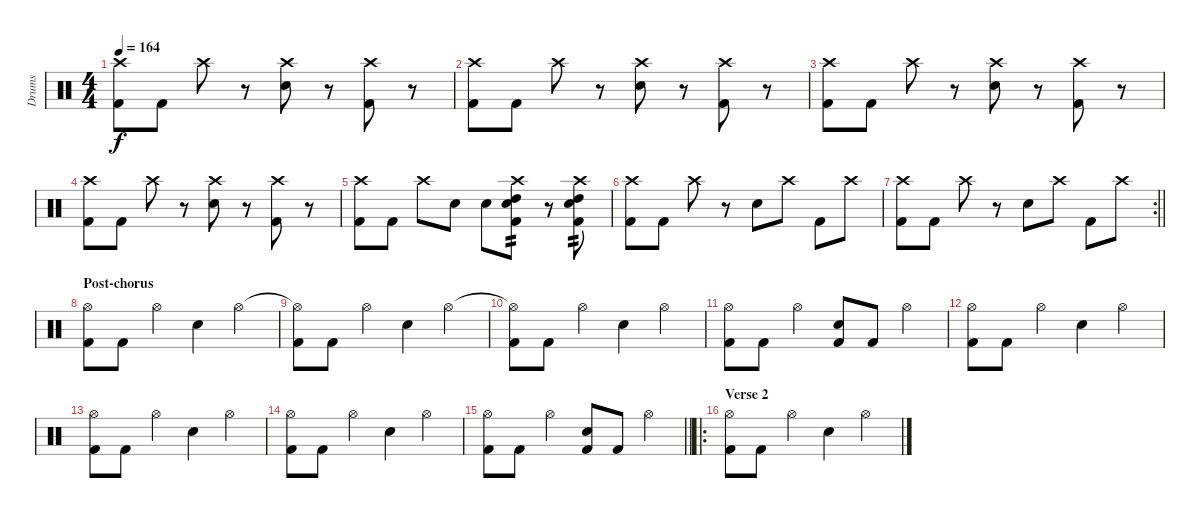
\track ("Drums" "Drums") {instrument percussion}
\staff {score}
\articulation defaults
\ts (4 4)
\tempo 164
\clef neutral
\ks c
("Crash high (hit)" "Kick (hit) 2").8{dy f} "Kick (hit) 2".8 "Crash high (hit)".8 r.8 ("Crash high (hit)" "Electric Snare (hit)").8 r.8 ("Crash high (hit)" "Kick (hit) 2").8 r.8 |
("Crash high (hit)" "Kick (hit) 2").8 "Kick (hit) 2".8 "Crash high (hit)".8 r.8 ("Crash high (hit)" "Electric Snare (hit)").8 r.8 ("Crash high (hit)" "Kick (hit) 2").8 r.8 |
("Crash high (hit)" "Kick (hit) 2").8 "Kick (hit) 2".8 "Crash high (hit)".8 r.8 ("Crash high (hit)" "Electric Snare (hit)").8 r.8 ("Crash high (hit)" "Kick (hit) 2").8 r.8 |
("Crash high (hit)" "Kick (hit) 2").8 "Kick (hit) 2".8 "Crash high (hit)".8 r.8 ("Crash high (hit)" "Electric Snare (hit)").8 r.8 ("Crash high (hit)" "Kick (hit) 2").8 r.8 |
("Crash high (hit)" "Kick (hit) 2").8 "Kick (hit) 2".8 "Crash high (hit)".8 "Electric Snare (hit)".8 "Snare (hit) 2".8 ("Crash high (hit)" "High Tom (hit)" "Snare (hit) 2" "Kick (hit) 2").8{tp 2} r.8 ("Crash high (hit)" "High Tom (hit)" "Electric Snare (hit)" "Kick (hit) 2").8{tp 2} |
("Crash high (hit)" "Kick (hit) 2").8 "Kick (hit) 2".8 "Crash high (hit)".8 r.8 "Electric Snare (hit)".8 "Crash high (hit)".8 "Kick (hit) 2".8 "Crash high (hit)".8 |
\rc 2
\barLineRight lightlight
("Crash high (hit)" "Kick (hit) 2").8 "Kick (hit) 2".8 "Crash high (hit)".8 r.8 "Electric Snare (hit)".8 "Crash high (hit)".8 "Kick (hit) 2".8 "Crash high (hit)".8 |
\section ("" "Post-chorus")
("Hi-Hat (open)" "Kick (hit) 2").8 "Kick (hit) 2".8 "Hi-Hat (open)".4 "Snare (hit) 2".4 "Hi-Hat (open)".4 |
("Hi-Hat (open)"{t} "Kick (hit) 2").8 "Kick (hit) 2".8 "Hi-Hat (open)".4 "Snare (hit) 2".4 "Hi-Hat (open)".4 |
("Hi-Hat (open)"{t} "Kick (hit) 2").8 "Kick (hit) 2".8 "Hi-Hat (open)".4 "Snare (hit) 2".4 "Hi-Hat (open)".4 |
("Hi-Hat (open)" "Kick (hit) 2").8 "Kick (hit) 2".8 "Hi-Hat (open)".4 ("Snare (hit) 2" "Kick (hit) 2").8 "Kick (hit) 2".8 "Hi-Hat (open)".4 |
("Hi-Hat (open)" "Kick (hit) 2").8 "Kick (hit) 2".8 "Hi-Hat (open)".4 "Snare (hit) 2".4 "Hi-Hat (open)".4 |
("Hi-Hat (open)" "Kick (hit) 2").8 "Kick (hit) 2".8 "Hi-Hat (open)".4 "Snare (hit) 2".4 "Hi-Hat (open)".4 |
("Hi-Hat (open)" "Kick (hit) 2").8 "Kick (hit) 2".8 "Hi-Hat (open)".4 "Snare (hit) 2".4 "Hi-Hat (open)".4 |
\barLineRight lightlight
("Hi-Hat (open)" "Kick (hit) 2").8 "Kick (hit) 2".8 "Hi-Hat (open)".4 ("Snare (hit) 2" "Kick (hit) 2").8 "Kick (hit) 2".8 "Hi-Hat (open)".4 |
\ro
\section ("" "Verse 2")
("Hi-Hat (open)" "Kick (hit) 2").8 "Kick (hit) 2".8 "Hi-Hat (open)".4 "Snare (hit) 2".4 "Hi-Hat (open)".4
